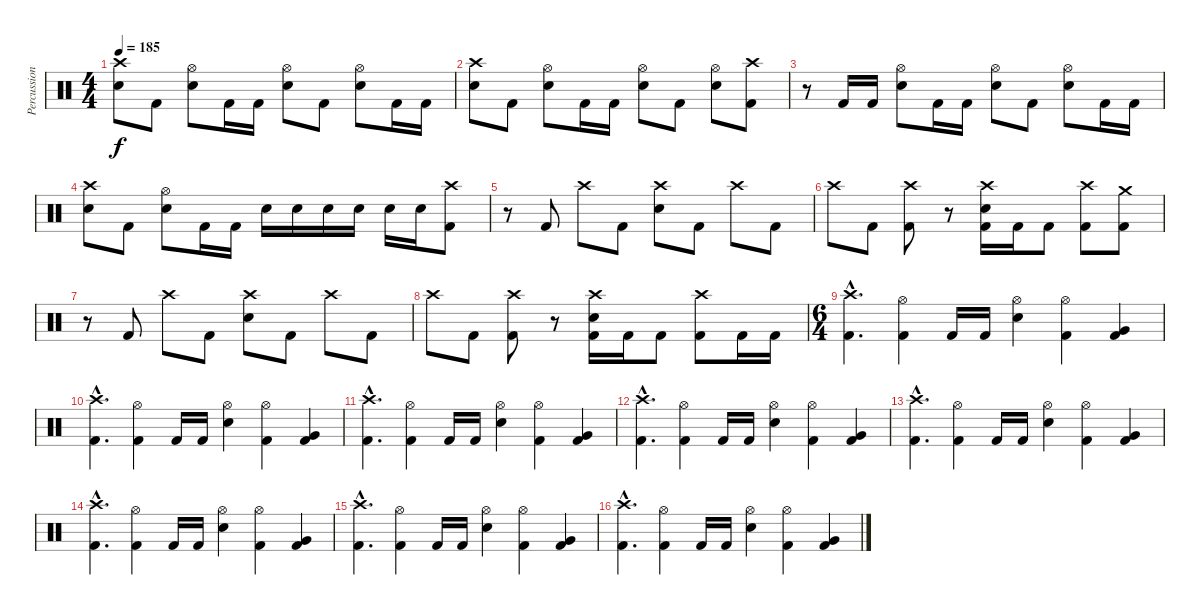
\track ("Percussion" "Percussion") {instrument percussion}
\staff {score}
\articulation defaults
\ts (4 4)
\tempo 185
\clef neutral
\ks c
("Crash high (hit)" "Electric Snare (hit)").8{dy f} "Kick (hit) 2".8 ("Hi-Hat (open)" "Electric Snare (hit)").8 "Kick (hit) 2".16 "Kick (hit) 2".16 ("Hi-Hat (open)" "Electric Snare (hit)").8 "Kick (hit) 2".8 ("Hi-Hat (open)" "Electric Snare (hit)").8 "Kick (hit) 2".16 "Kick (hit) 2".16 |
("Crash high (hit)" "Electric Snare (hit)").8 "Kick (hit) 2".8 ("Hi-Hat (open)" "Electric Snare (hit)").8 "Kick (hit) 2".16 "Kick (hit) 2".16 ("Hi-Hat (open)" "Electric Snare (hit)").8 "Kick (hit) 2".8 ("Hi-Hat (open)" "Electric Snare (hit)").8 ("Crash high (hit)" "Kick (hit) 2").8 |
r.8 "Kick (hit) 2".16 "Kick (hit) 2".16 ("Hi-Hat (open)" "Electric Snare (hit)").8 "Kick (hit) 2".16 "Kick (hit) 2".16 ("Hi-Hat (open)" "Electric Snare (hit)").8 "Kick (hit) 2".8 ("Hi-Hat (open)" "Electric Snare (hit)").8 "Kick (hit) 2".16 "Kick (hit) 2".16 |
("Crash high (hit)" "Electric Snare (hit)").8 "Kick (hit) 2".8 ("Hi-Hat (open)" "Electric Snare (hit)").8 "Kick (hit) 2".16 "Kick (hit) 2".16 "Electric Snare (hit)".16 "Electric Snare (hit)".16 "Electric Snare (hit)".16 "Electric Snare (hit)".16 "Electric Snare (hit)".16 "Electric Snare (hit)".16 ("Crash high (hit)" "Kick (hit) 2").8 |
r.8 "Kick (hit) 2".8 "Crash high (hit)".8 "Kick (hit) 2".8 ("Crash high (hit)" "Electric Snare (hit)").8 "Kick (hit) 2".8 "Crash high (hit)".8 "Kick (hit) 2".8 |
"Crash high (hit)".8 "Kick (hit) 2".8 ("Crash high (hit)" "Kick (hit) 2").8 r.8 ("Crash high (hit)" "Electric Snare (hit)" "Kick (hit) 2").16 "Kick (hit) 2".16 "Kick (hit) 2".8 ("Crash high (hit)" "Kick (hit) 2").8 ("Crash medium (hit)" "Kick (hit) 2").8 |
r.8 "Kick (hit) 2".8 "Crash high (hit)".8 "Kick (hit) 2".8 ("Crash high (hit)" "Electric Snare (hit)").8 "Kick (hit) 2".8 "Crash high (hit)".8 "Kick (hit) 2".8 |
"Crash high (hit)".8 "Kick (hit) 2".8 ("Crash high (hit)" "Kick (hit) 2").8 r.8 ("Crash high (hit)" "Electric Snare (hit)" "Kick (hit) 2").16 "Kick (hit) 2".16 "Kick (hit) 2".8 ("Crash high (hit)" "Kick (hit) 2").8 "Kick (hit) 2".16 "Kick (hit) 2".16 |
\ts (6 4)
("Crash high (hit)"{hac} "Kick (hit) 2"{hac}).4{d} ("Hi-Hat (open)" "Kick (hit) 2").4 "Kick (hit) 2".16 "Kick (hit) 2".16 ("Hi-Hat (open)" "Electric Snare (hit)").4 ("Hi-Hat (open)" "Kick (hit) 2").4 ("Very Low Tom (hit)" "Kick (hit) 2").4 |
("Crash high (hit)"{hac} "Kick (hit) 2"{hac}).4{d} ("Hi-Hat (open)" "Kick (hit) 2").4 "Kick (hit) 2".16 "Kick (hit) 2".16 ("Hi-Hat (open)" "Electric Snare (hit)").4 ("Hi-Hat (open)" "Kick (hit) 2").4 ("Very Low Tom (hit)" "Kick (hit) 2").4 |
("Crash high (hit)"{hac} "Kick (hit) 2"{hac}).4{d} ("Hi-Hat (open)" "Kick (hit) 2").4 "Kick (hit) 2".16 "Kick (hit) 2".16 ("Hi-Hat (open)" "Electric Snare (hit)").4 ("Hi-Hat (open)" "Kick (hit) 2").4 ("Very Low Tom (hit)" "Kick (hit) 2").4 |
("Crash high (hit)"{hac} "Kick (hit) 2"{hac}).4{d} ("Hi-Hat (open)" "Kick (hit) 2").4 "Kick (hit) 2".16 "Kick (hit) 2".16 ("Hi-Hat (open)" "Electric Snare (hit)").4 ("Hi-Hat (open)" "Kick (hit) 2").4 ("Very Low Tom (hit)" "Kick (hit) 2").4 |
("Crash high (hit)"{hac} "Kick (hit) 2"{hac}).4{d} ("Hi-Hat (open)" "Kick (hit) 2").4 "Kick (hit) 2".16 "Kick (hit) 2".16 ("Hi-Hat (open)" "Electric Snare (hit)").4 ("Hi-Hat (open)" "Kick (hit) 2").4 ("Very Low Tom (hit)" "Kick (hit) 2").4 |
("Crash high (hit)"{hac} "Kick (hit) 2"{hac}).4{d} ("Hi-Hat (open)" "Kick (hit) 2").4 "Kick (hit) 2".16 "Kick (hit) 2".16 ("Hi-Hat (open)" "Electric Snare (hit)").4 ("Hi-Hat (open)" "Kick (hit) 2").4 ("Very Low Tom (hit)" "Kick (hit) 2").4 |
("Crash high (hit)"{hac} "Kick (hit) 2"{hac}).4{d} ("Hi-Hat (open)" "Kick (hit) 2").4 "Kick (hit) 2".16 "Kick (hit) 2".16 ("Hi-Hat (open)" "Electric Snare (hit)").4 ("Hi-Hat (open)" "Kick (hit) 2").4 ("Very Low Tom (hit)" "Kick (hit) 2").4 |
("Crash high (hit)"{hac} "Kick (hit) 2"{hac}).4{d} ("Hi-Hat (open)" "Kick (hit) 2").4 "Kick (hit) 2".16 "Kick (hit) 2".16 ("Hi-Hat (open)" "Electric Snare (hit)").4 ("Hi-Hat (open)" "Kick (hit) 2").4 ("Very Low Tom (hit)" "Kick (hit) 2").4
